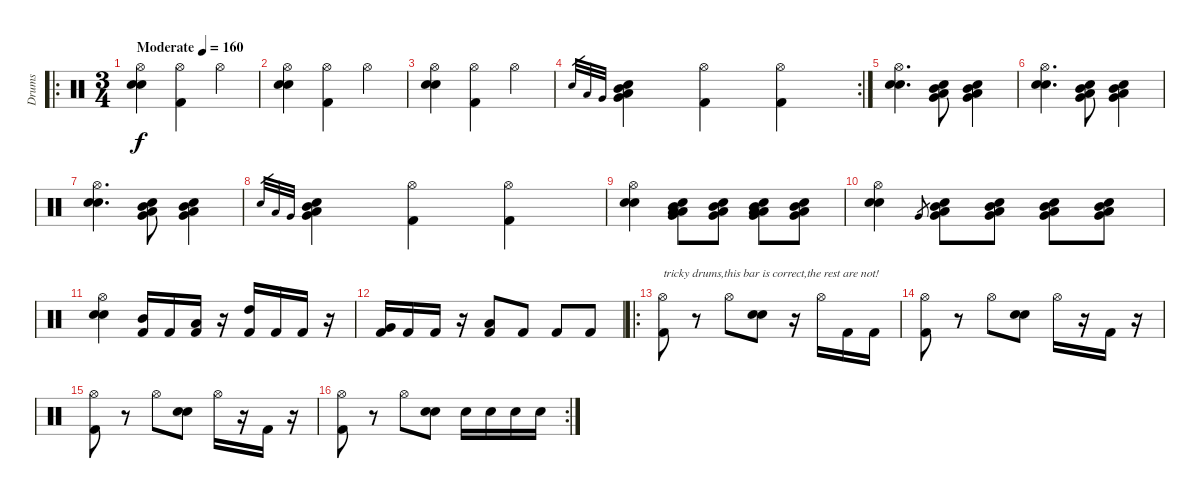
\track ("Drums" "Drums") {instrument percussion}
\staff {score}
\articulation defaults
\ro
\ts (3 4)
\tempo (160 "Moderate")
\clef neutral
\ks c
("Electric Snare (hit)" "Snare (hit) 2" "Hi-Hat (open)").4{dy f} ("Kick (hit) 2" "Hi-Hat (open)").4 "Hi-Hat (open)".4 |
("Electric Snare (hit)" "Snare (hit) 2" "Hi-Hat (open)").4 ("Kick (hit) 2" "Hi-Hat (open)").4 "Hi-Hat (open)".4 |
("Electric Snare (hit)" "Snare (hit) 2" "Hi-Hat (open)").4 ("Kick (hit) 2" "Hi-Hat (open)").4 "Hi-Hat (open)".4 |
\rc 2 "Electric Snare (hit)".32{gr} "Low Floor Tom (hit)".32{gr} "Very Low Tom (hit)".32{gr}
("Electric Snare (hit)" "Low Floor Tom (hit)" "Mid Tom (hit)" "Very Low Tom (hit)").4 ("Kick (hit) 2" "Hi-Hat (open)").4 ("Kick (hit) 2" "Hi-Hat (open)").4 |
("Electric Snare (hit)" "Snare (hit) 2" "Hi-Hat (open)").4{d} ("Electric Snare (hit)" "Low Floor Tom (hit)" "Mid Tom (hit)" "Very Low Tom (hit)").8 ("Electric Snare (hit)" "Low Floor Tom (hit)" "Mid Tom (hit)" "Very Low Tom (hit)").4 |
("Electric Snare (hit)" "Snare (hit) 2" "Hi-Hat (open)").4{d} ("Electric Snare (hit)" "Low Floor Tom (hit)" "Mid Tom (hit)" "Very Low Tom (hit)").8 ("Electric Snare (hit)" "Low Floor Tom (hit)" "Mid Tom (hit)" "Very Low Tom (hit)").4 |
("Electric Snare (hit)" "Snare (hit) 2" "Hi-Hat (open)").4{d} ("Electric Snare (hit)" "Low Floor Tom (hit)" "Mid Tom (hit)" "Very Low Tom (hit)").8 ("Electric Snare (hit)" "Low Floor Tom (hit)" "Mid Tom (hit)" "Very Low Tom (hit)").4 |
"Electric Snare (hit)".32{gr} "Low Floor Tom (hit)".32{gr} "Very Low Tom (hit)".32{gr} ("Electric Snare (hit)" "Low Floor Tom (hit)" "Mid Tom (hit)" "Very Low Tom (hit)").4 ("Kick (hit) 2" "Hi-Hat (open)").4 ("Kick (hit) 2" "Hi-Hat (open)").4 |
("Electric Snare (hit)" "Snare (hit) 2" "Hi-Hat (open)").4 ("Electric Snare (hit)" "Low Floor Tom (hit)" "Mid Tom (hit)" "Very Low Tom (hit)" "Low Tom (hit)").8 ("Electric Snare (hit)" "Low Floor Tom (hit)" "Mid Tom (hit)" "Very Low Tom (hit)").8 ("Electric Snare (hit)" "Low Floor Tom (hit)" "Mid Tom (hit)" "Very Low Tom (hit)" "Low Tom (hit)").8 ("Electric Snare (hit)" "Low Floor Tom (hit)" "Mid Tom (hit)" "Very Low Tom (hit)").8 |
("Electric Snare (hit)" "Snare (hit) 2" "Hi-Hat (open)").4 "Very Low Tom (hit)".8{gr} ("Electric Snare (hit)" "Low Floor Tom (hit)" "Mid Tom (hit)" "Very Low Tom (hit)").8 ("Electric Snare (hit)" "Low Floor Tom (hit)" "Mid Tom (hit)" "Very Low Tom (hit)").8 ("Electric Snare (hit)" "Low Floor Tom (hit)" "Mid Tom (hit)" "Very Low Tom (hit)").8 ("Electric Snare (hit)" "Low Floor Tom (hit)" "Mid Tom (hit)" "Very Low Tom (hit)").8 |
("Electric Snare (hit)" "Snare (hit) 2" "Hi-Hat (open)").4 ("Mid Tom (hit)" "Kick (hit) 2").16{balance 15} "Kick (hit) 2".16 ("Low Floor Tom (hit)" "Kick (hit) 2").16 r.16 ("High Tom (hit)" "Kick (hit) 2").16{balance 2} "Kick (hit) 2".16 "Kick (hit) 2".16 r.16 |
("Very Low Tom (hit)" "Kick (hit) 2").16{balance 8} "Kick (hit) 2".16 "Kick (hit) 2".16 r.16 ("Low Floor Tom (hit)" "Kick (hit) 2").8 "Kick (hit) 2".8 "Kick (hit) 2".8 "Kick (hit) 2".8 |
\ro
("Kick (hit) 2" "Hi-Hat (open)").8{txt "tricky drums,this bar is correct,the rest are not!"} r.8 "Hi-Hat (open)".8 ("Snare (hit) 2" "Electric Snare (hit)").8 r.16 "Hi-Hat (open)".16 "Kick (hit) 2".16 "Kick (hit) 2".16 |
("Kick (hit) 2" "Hi-Hat (open)").8 r.8 "Hi-Hat (open)".8 ("Snare (hit) 2" "Electric Snare (hit)").8 "Hi-Hat (open)".16 r.16 "Kick (hit) 2".16 r.16 |
("Kick (hit) 2" "Hi-Hat (open)").8 r.8 "Hi-Hat (open)".8 ("Snare (hit) 2" "Electric Snare (hit)").8 "Hi-Hat (open)".16 r.16 "Kick (hit) 2".16 r.16 |
\rc 2
("Kick (hit) 2" "Hi-Hat (open)").8 r.8 "Hi-Hat (open)".8 ("Snare (hit) 2" "Electric Snare (hit)").8 "Electric Snare (hit)".16 "Electric Snare (hit)".16 "Electric Snare (hit)".16 "Electric Snare (hit)".16
